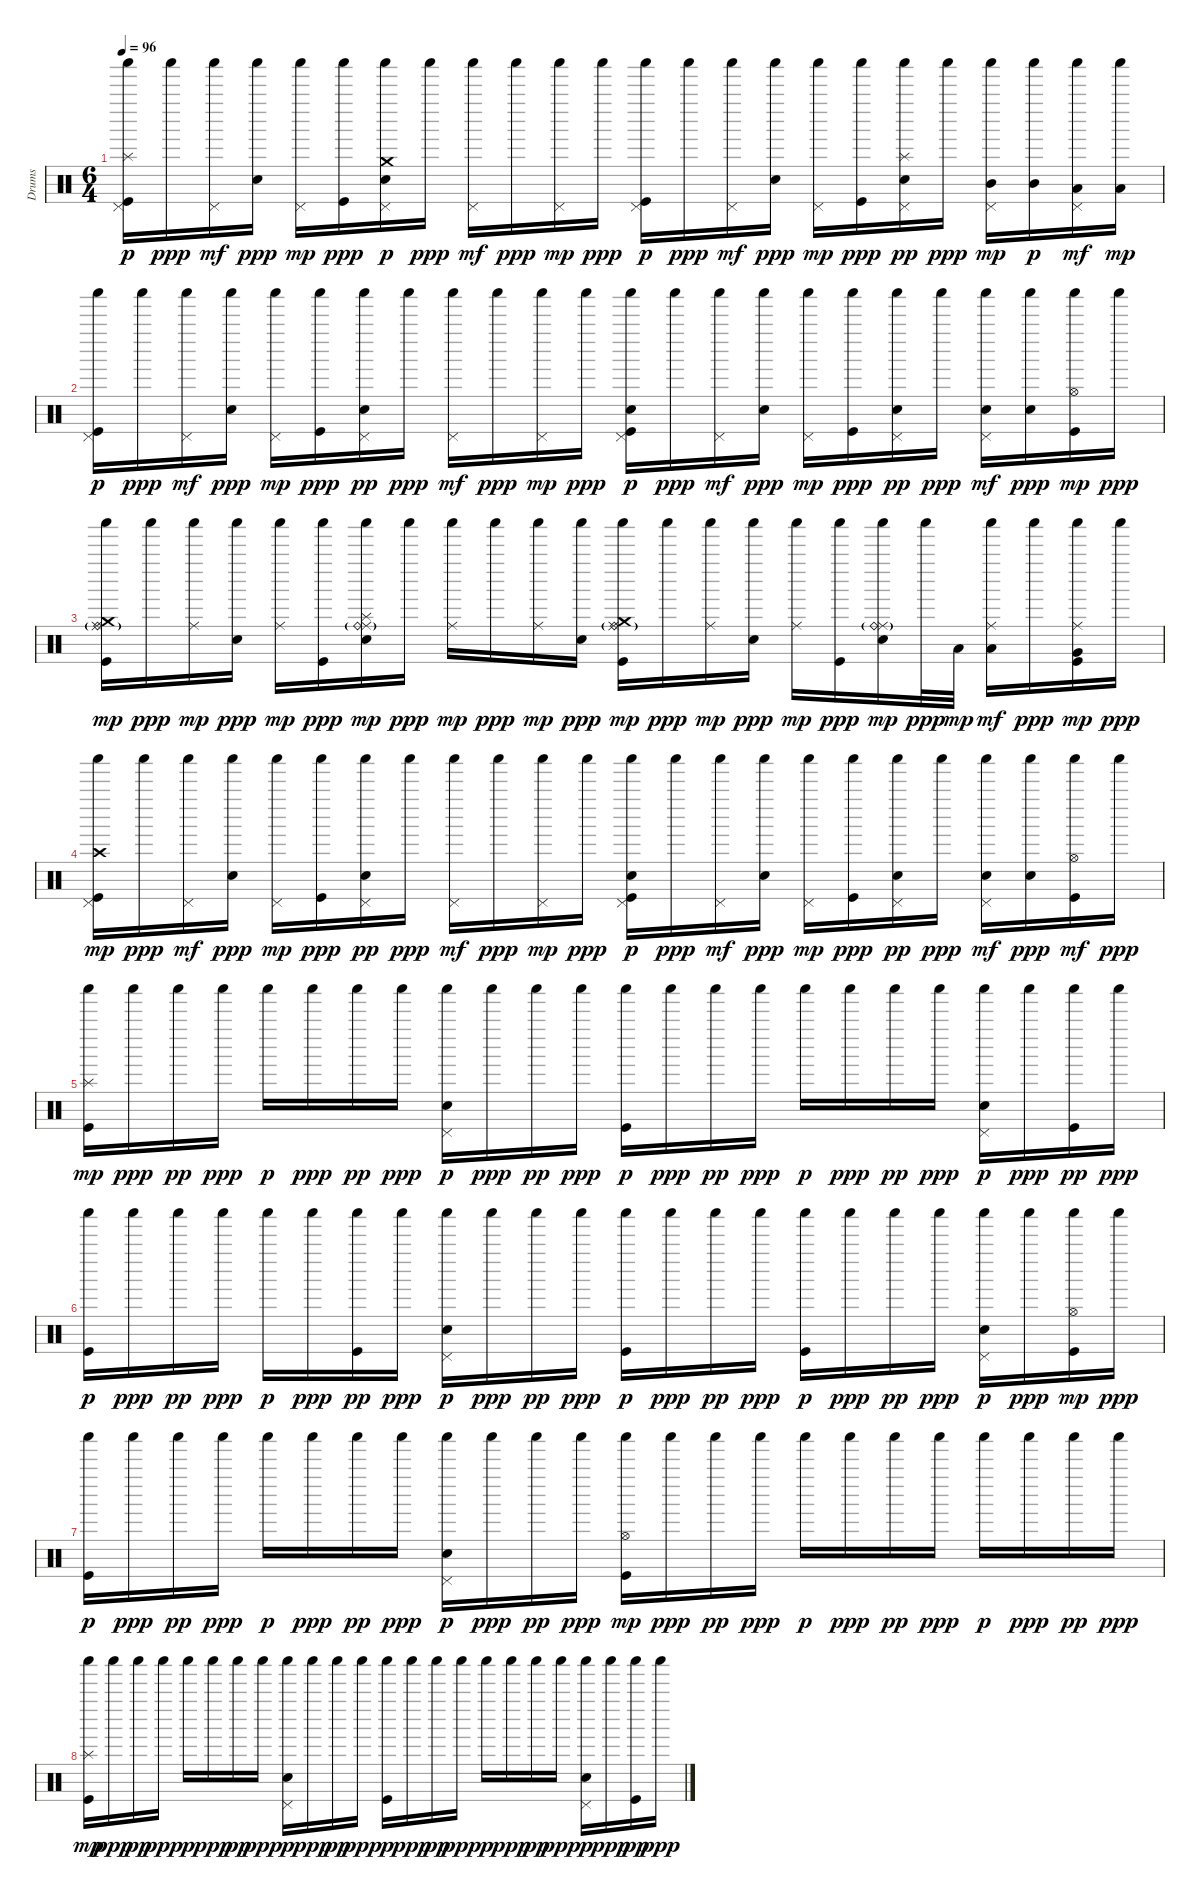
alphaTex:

\track ("Drums" "Drums") {instrument percussion}
\staff {score}
\articulation defaults
\ts (6 4)
\tempo 96
\clef neutral
\ks c
("Shaker (hit)" "Pedal Hi-Hat (hit)" "Splash (hit)" "Kick (hit)").16{dy p} "Shaker (hit)".16{dy ppp} ("Shaker (hit)" "Pedal Hi-Hat (hit)").16{dy mf} ("Shaker (hit)" "Hand Clap (hit)").16{dy ppp} ("Shaker (hit)" "Pedal Hi-Hat (hit)").16{dy mp} ("Shaker (hit)" "Kick (hit)").16{dy ppp} ("Shaker (hit)" "Pedal Hi-Hat (hit)" "Crash medium (hit)" "Hand Clap (hit)").16{dy p} "Shaker (hit)".16{dy ppp} ("Shaker (hit)" "Pedal Hi-Hat (hit)").16{dy mf} "Shaker (hit)".16{dy ppp} ("Shaker (hit)" "Pedal Hi-Hat (hit)").16{dy mp} "Shaker (hit)".16{dy ppp} ("Shaker (hit)" "Pedal Hi-Hat (hit)" "Kick (hit)").16{dy p} "Shaker (hit)".16{dy ppp} ("Shaker (hit)" "Pedal Hi-Hat (hit)").16{dy mf} ("Shaker (hit)" "Hand Clap (hit)").16{dy ppp} ("Shaker (hit)" "Pedal Hi-Hat (hit)").16{dy mp} ("Shaker (hit)" "Kick (hit)").16{dy ppp} ("Shaker (hit)" "Pedal Hi-Hat (hit)" "Splash (hit)" "Hand Clap (hit)").16{dy pp} "Shaker (hit)".16{dy ppp} ("Shaker (hit)" "Pedal Hi-Hat (hit)" "Mid Tom (hit)").16{dy mp} ("Shaker (hit)" "Mid Tom (hit)").16{dy p} ("Shaker (hit)" "Pedal Hi-Hat (hit)" "Low Tom (hit)").16{dy mf} ("Shaker (hit)" "Low Tom (hit)").16{dy mp} |
("Shaker (hit)" "Pedal Hi-Hat (hit)" "Kick (hit)").16{dy p} "Shaker (hit)".16{dy ppp} ("Shaker (hit)" "Pedal Hi-Hat (hit)").16{dy mf} ("Shaker (hit)" "Hand Clap (hit)").16{dy ppp} ("Shaker (hit)" "Pedal Hi-Hat (hit)").16{dy mp} ("Shaker (hit)" "Kick (hit)").16{dy ppp} ("Shaker (hit)" "Pedal Hi-Hat (hit)" "Hand Clap (hit)").16{dy pp} "Shaker (hit)".16{dy ppp} ("Shaker (hit)" "Pedal Hi-Hat (hit)").16{dy mf} "Shaker (hit)".16{dy ppp} ("Shaker (hit)" "Pedal Hi-Hat (hit)").16{dy mp} "Shaker (hit)".16{dy ppp} ("Shaker (hit)" "Pedal Hi-Hat (hit)" "Hand Clap (hit)" "Kick (hit)").16{dy p} "Shaker (hit)".16{dy ppp} ("Shaker (hit)" "Pedal Hi-Hat (hit)").16{dy mf} ("Shaker (hit)" "Hand Clap (hit)").16{dy ppp} ("Shaker (hit)" "Pedal Hi-Hat (hit)").16{dy mp} ("Shaker (hit)" "Kick (hit)").16{dy ppp} ("Shaker (hit)" "Pedal Hi-Hat (hit)" "Hand Clap (hit)").16{dy pp} "Shaker (hit)".16{dy ppp} ("Shaker (hit)" "Pedal Hi-Hat (hit)" "Hand Clap (hit)").16{dy mf} ("Shaker (hit)" "Hand Clap (hit)").16{dy ppp} ("Shaker (hit)" "Hi-Hat (open)" "Kick (hit)").16{dy mp} "Shaker (hit)".16{dy ppp} |
("Shaker (hit)" "Ride (middle)" "Ride (bell)"{g} "Crash medium (hit)" "Kick (hit)").16{dy mp} "Shaker (hit)".16{dy ppp} ("Shaker (hit)" "Ride (middle)").16{dy mp} ("Shaker (hit)" "Hand Clap (hit)").16{dy ppp} ("Shaker (hit)" "Ride (middle)").16{dy mp} ("Shaker (hit)" "Kick (hit)").16{dy ppp} ("Shaker (hit)" "Ride (middle)" "Ride (bell)"{g} "Splash (hit)" "Hand Clap (hit)").16{dy mp} "Shaker (hit)".16{dy ppp} ("Shaker (hit)" "Ride (middle)").16{dy mp} "Shaker (hit)".16{dy ppp} ("Shaker (hit)" "Ride (middle)").16{dy mp} ("Shaker (hit)" "Hand Clap (hit)").16{dy ppp} ("Shaker (hit)" "Ride (middle)" "Ride (bell)"{g} "Crash medium (hit)" "Kick (hit)").16{dy mp} "Shaker (hit)".16{dy ppp} ("Shaker (hit)" "Ride (middle)").16{dy mp} ("Shaker (hit)" "Hand Clap (hit)").16{dy ppp} ("Shaker (hit)" "Ride (middle)").16{dy mp} ("Shaker (hit)" "Kick (hit)").16{dy ppp} ("Shaker (hit)" "Ride (middle)" "Ride (bell)"{g} "Hand Clap (hit)").16{dy mp} "Shaker (hit)".32{dy ppp} "Low Tom (hit)".32{dy mp} ("Shaker (hit)" "Ride (middle)" "Low Tom (hit)").16{dy mf} "Shaker (hit)".16{dy ppp} ("Shaker (hit)" "Ride (middle)" "Very Low Tom (hit)" "Kick (hit)").16{dy mp} "Shaker (hit)".16{dy ppp} |
("Shaker (hit)" "Pedal Hi-Hat (hit)" "Crash high (hit)" "Kick (hit)").16{dy mp} "Shaker (hit)".16{dy ppp} ("Shaker (hit)" "Pedal Hi-Hat (hit)").16{dy mf} ("Shaker (hit)" "Hand Clap (hit)").16{dy ppp} ("Shaker (hit)" "Pedal Hi-Hat (hit)").16{dy mp} ("Shaker (hit)" "Kick (hit)").16{dy ppp} ("Shaker (hit)" "Pedal Hi-Hat (hit)" "Hand Clap (hit)").16{dy pp} "Shaker (hit)".16{dy ppp} ("Shaker (hit)" "Pedal Hi-Hat (hit)").16{dy mf} "Shaker (hit)".16{dy ppp} ("Shaker (hit)" "Pedal Hi-Hat (hit)").16{dy mp} "Shaker (hit)".16{dy ppp} ("Shaker (hit)" "Pedal Hi-Hat (hit)" "Hand Clap (hit)" "Kick (hit)").16{dy p} "Shaker (hit)".16{dy ppp} ("Shaker (hit)" "Pedal Hi-Hat (hit)").16{dy mf} ("Shaker (hit)" "Hand Clap (hit)").16{dy ppp} ("Shaker (hit)" "Pedal Hi-Hat (hit)").16{dy mp} ("Shaker (hit)" "Kick (hit)").16{dy ppp} ("Shaker (hit)" "Pedal Hi-Hat (hit)" "Hand Clap (hit)").16{dy pp} "Shaker (hit)".16{dy ppp} ("Shaker (hit)" "Pedal Hi-Hat (hit)" "Hand Clap (hit)").16{dy mf} ("Shaker (hit)" "Hand Clap (hit)").16{dy ppp} ("Shaker (hit)" "Hi-Hat (open)" "Kick (hit)").16{dy mf} "Shaker (hit)".16{dy ppp} |
("Shaker (hit)" "Splash (hit)" "Kick (hit)").16{dy mp} "Shaker (hit)".16{dy ppp} "Shaker (hit)".16{dy pp} "Shaker (hit)".16{dy ppp} "Shaker (hit)".16{dy p} "Shaker (hit)".16{dy ppp} "Shaker (hit)".16{dy pp} "Shaker (hit)".16{dy ppp} ("Shaker (hit)" "Pedal Hi-Hat (hit)" "Hand Clap (hit)").16{dy p} "Shaker (hit)".16{dy ppp} "Shaker (hit)".16{dy pp} "Shaker (hit)".16{dy ppp} ("Shaker (hit)" "Kick (hit)").16{dy p} "Shaker (hit)".16{dy ppp} "Shaker (hit)".16{dy pp} "Shaker (hit)".16{dy ppp} "Shaker (hit)".16{dy p} "Shaker (hit)".16{dy ppp} "Shaker (hit)".16{dy pp} "Shaker (hit)".16{dy ppp} ("Shaker (hit)" "Pedal Hi-Hat (hit)" "Hand Clap (hit)").16{dy p} "Shaker (hit)".16{dy ppp} ("Shaker (hit)" "Kick (hit)").16{dy pp} "Shaker (hit)".16{dy ppp} |
("Shaker (hit)" "Kick (hit)").16{dy p} "Shaker (hit)".16{dy ppp} "Shaker (hit)".16{dy pp} "Shaker (hit)".16{dy ppp} "Shaker (hit)".16{dy p} "Shaker (hit)".16{dy ppp} ("Shaker (hit)" "Kick (hit)").16{dy pp} "Shaker (hit)".16{dy ppp} ("Shaker (hit)" "Pedal Hi-Hat (hit)" "Hand Clap (hit)").16{dy p} "Shaker (hit)".16{dy ppp} "Shaker (hit)".16{dy pp} "Shaker (hit)".16{dy ppp} ("Shaker (hit)" "Kick (hit)").16{dy p} "Shaker (hit)".16{dy ppp} "Shaker (hit)".16{dy pp} "Shaker (hit)".16{dy ppp} ("Shaker (hit)" "Kick (hit)").16{dy p} "Shaker (hit)".16{dy ppp} "Shaker (hit)".16{dy pp} "Shaker (hit)".16{dy ppp} ("Shaker (hit)" "Pedal Hi-Hat (hit)" "Hand Clap (hit)").16{dy p} "Shaker (hit)".16{dy ppp} ("Shaker (hit)" "Hi-Hat (open)" "Kick (hit)").16{dy mp} "Shaker (hit)".16{dy ppp} |
("Shaker (hit)" "Kick (hit)").16{dy p} "Shaker (hit)".16{dy ppp} "Shaker (hit)".16{dy pp} "Shaker (hit)".16{dy ppp} "Shaker (hit)".16{dy p} "Shaker (hit)".16{dy ppp} "Shaker (hit)".16{dy pp} "Shaker (hit)".16{dy ppp} ("Shaker (hit)" "Pedal Hi-Hat (hit)" "Hand Clap (hit)").16{dy p} "Shaker (hit)".16{dy ppp} "Shaker (hit)".16{dy pp} "Shaker (hit)".16{dy ppp} ("Shaker (hit)" "Hi-Hat (open)" "Kick (hit)").16{dy mp} "Shaker (hit)".16{dy ppp} "Shaker (hit)".16{dy pp} "Shaker (hit)".16{dy ppp} "Shaker (hit)".16{dy p} "Shaker (hit)".16{dy ppp} "Shaker (hit)".16{dy pp} "Shaker (hit)".16{dy ppp} "Shaker (hit)".16{dy p} "Shaker (hit)".16{dy ppp} "Shaker (hit)".16{dy pp} "Shaker (hit)".16{dy ppp} |
("Shaker (hit)" "Splash (hit)" "Kick (hit)").16{dy mp} "Shaker (hit)".16{dy ppp} "Shaker (hit)".16{dy pp} "Shaker (hit)".16{dy ppp} "Shaker (hit)".16{dy p} "Shaker (hit)".16{dy ppp} "Shaker (hit)".16{dy pp} "Shaker (hit)".16{dy ppp} ("Shaker (hit)" "Pedal Hi-Hat (hit)" "Hand Clap (hit)").16{dy p} "Shaker (hit)".16{dy ppp} "Shaker (hit)".16{dy pp} "Shaker (hit)".16{dy ppp} ("Shaker (hit)" "Kick (hit)").16{dy p} "Shaker (hit)".16{dy ppp} "Shaker (hit)".16{dy pp} "Shaker (hit)".16{dy ppp} "Shaker (hit)".16{dy p} "Shaker (hit)".16{dy ppp} "Shaker (hit)".16{dy pp} "Shaker (hit)".16{dy ppp} ("Shaker (hit)" "Pedal Hi-Hat (hit)" "Hand Clap (hit)").16{dy p} "Shaker (hit)".16{dy ppp} ("Shaker (hit)" "Kick (hit)").16{dy pp} "Shaker (hit)".16{dy ppp}
